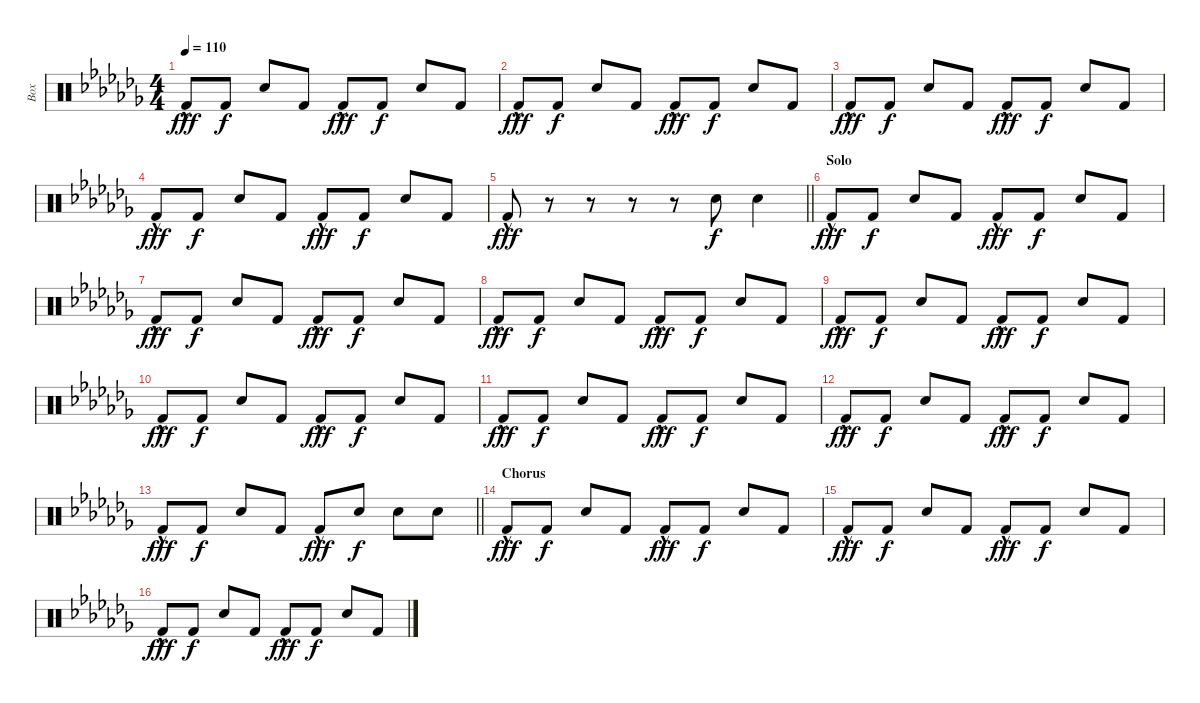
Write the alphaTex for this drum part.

\track ("Box" "Box") {instrument percussion}
\staff {score}
\articulation defaults
\ts (4 4)
\tempo 110
\clef neutral
\ks abminor "Kick (hit) 2"{hac}.8{dy fff volume 13} "Kick (hit) 2".8{dy f volume 5} "Snare (hit) 2".8{volume 13} "Kick (hit) 2".8{volume 5} "Kick (hit) 2"{hac}.8{dy fff volume 13} "Kick (hit) 2".8{dy f volume 5} "Snare (hit) 2".8{volume 13} "Kick (hit) 2".8{volume 5}
|
"Kick (hit) 2"{hac}.8{dy fff volume 13} "Kick (hit) 2".8{dy f volume 5} "Snare (hit) 2".8{volume 13} "Kick (hit) 2".8{volume 5} "Kick (hit) 2"{hac}.8{dy fff volume 13} "Kick (hit) 2".8{dy f volume 5} "Snare (hit) 2".8{volume 13} "Kick (hit) 2".8{volume 5} |
"Kick (hit) 2"{hac}.8{dy fff volume 13} "Kick (hit) 2".8{dy f volume 5} "Snare (hit) 2".8{volume 13} "Kick (hit) 2".8{volume 5} "Kick (hit) 2"{hac}.8{dy fff volume 13} "Kick (hit) 2".8{dy f volume 5} "Snare (hit) 2".8{volume 13} "Kick (hit) 2".8{volume 5} |
"Kick (hit) 2"{hac}.8{dy fff volume 13} "Kick (hit) 2".8{dy f volume 5} "Snare (hit) 2".8{volume 13} "Kick (hit) 2".8{volume 5} "Kick (hit) 2"{hac}.8{dy fff volume 13} "Kick (hit) 2".8{dy f volume 5} "Snare (hit) 2".8{volume 13} "Kick (hit) 2".8{volume 5} |
\barLineRight lightlight "Kick (hit) 2"{hac}.8{dy fff volume 13}
r.8 r.8 r.8 r.8 "Snare (hit) 2".8{dy f} "Snare (hit) 2".4 |
\section ("" "Solo")
"Kick (hit) 2"{hac}.8{dy fff volume 13} "Kick (hit) 2".8{dy f volume 5} "Snare (hit) 2".8{volume 13} "Kick (hit) 2".8{volume 5} "Kick (hit) 2"{hac}.8{dy fff volume 13} "Kick (hit) 2".8{dy f volume 5} "Snare (hit) 2".8{volume 13} "Kick (hit) 2".8{volume 5} |
"Kick (hit) 2"{hac}.8{dy fff volume 13} "Kick (hit) 2".8{dy f volume 5} "Snare (hit) 2".8{volume 13} "Kick (hit) 2".8{volume 5} "Kick (hit) 2"{hac}.8{dy fff volume 13} "Kick (hit) 2".8{dy f volume 5} "Snare (hit) 2".8{volume 13} "Kick (hit) 2".8{volume 5} |
"Kick (hit) 2"{hac}.8{dy fff volume 13} "Kick (hit) 2".8{dy f volume 5} "Snare (hit) 2".8{volume 13} "Kick (hit) 2".8{volume 5} "Kick (hit) 2"{hac}.8{dy fff volume 13} "Kick (hit) 2".8{dy f volume 5} "Snare (hit) 2".8{volume 13} "Kick (hit) 2".8{volume 5} |
"Kick (hit) 2"{hac}.8{dy fff volume 13} "Kick (hit) 2".8{dy f volume 5} "Snare (hit) 2".8{volume 13} "Kick (hit) 2".8{volume 5} "Kick (hit) 2"{hac}.8{dy fff volume 13} "Kick (hit) 2".8{dy f volume 5} "Snare (hit) 2".8{volume 13} "Kick (hit) 2".8{volume 5} |
"Kick (hit) 2"{hac}.8{dy fff volume 13} "Kick (hit) 2".8{dy f volume 5} "Snare (hit) 2".8{volume 13} "Kick (hit) 2".8{volume 5} "Kick (hit) 2"{hac}.8{dy fff volume 13} "Kick (hit) 2".8{dy f volume 5} "Snare (hit) 2".8{volume 13} "Kick (hit) 2".8{volume 5} |
"Kick (hit) 2"{hac}.8{dy fff volume 13} "Kick (hit) 2".8{dy f volume 5} "Snare (hit) 2".8{volume 13} "Kick (hit) 2".8{volume 5} "Kick (hit) 2"{hac}.8{dy fff volume 13} "Kick (hit) 2".8{dy f volume 5} "Snare (hit) 2".8{volume 13} "Kick (hit) 2".8{volume 5} |
"Kick (hit) 2"{hac}.8{dy fff volume 13} "Kick (hit) 2".8{dy f volume 5} "Snare (hit) 2".8{volume 13} "Kick (hit) 2".8{volume 5} "Kick (hit) 2"{hac}.8{dy fff volume 13} "Kick (hit) 2".8{dy f volume 5} "Snare (hit) 2".8{volume 13} "Kick (hit) 2".8{volume 5} |
\barLineRight lightlight "Kick (hit) 2"{hac}.8{dy fff volume 13} "Kick (hit) 2".8{dy f volume 5} "Snare (hit) 2".8{volume 13} "Kick (hit) 2".8{volume 5} "Kick (hit) 2"{hac}.8{dy fff volume 13} "Snare (hit) 2".8{dy f} "Snare (hit) 2".8 "Snare (hit) 2".8
|
\section ("" "Chorus")
"Kick (hit) 2"{hac}.8{dy fff volume 13} "Kick (hit) 2".8{dy f volume 5} "Snare (hit) 2".8{volume 13} "Kick (hit) 2".8{volume 5} "Kick (hit) 2"{hac}.8{dy fff volume 13} "Kick (hit) 2".8{dy f volume 5} "Snare (hit) 2".8{volume 13} "Kick (hit) 2".8{volume 5} |
"Kick (hit) 2"{hac}.8{dy fff volume 13} "Kick (hit) 2".8{dy f volume 5} "Snare (hit) 2".8{volume 13} "Kick (hit) 2".8{volume 5} "Kick (hit) 2"{hac}.8{dy fff volume 13} "Kick (hit) 2".8{dy f volume 5} "Snare (hit) 2".8{volume 13} "Kick (hit) 2".8{volume 5} |
"Kick (hit) 2"{hac}.8{dy fff volume 13} "Kick (hit) 2".8{dy f volume 5} "Snare (hit) 2".8{volume 13} "Kick (hit) 2".8{volume 5} "Kick (hit) 2"{hac}.8{dy fff volume 13} "Kick (hit) 2".8{dy f volume 5} "Snare (hit) 2".8{volume 13} "Kick (hit) 2".8{volume 5}
